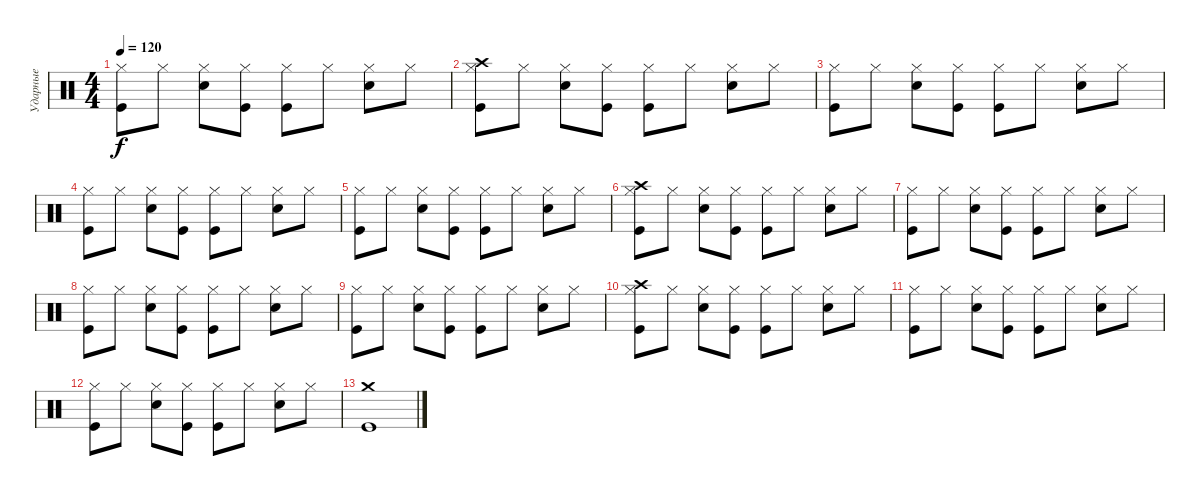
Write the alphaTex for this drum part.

\track ("Ударные" "Ударные") {instrument percussion}
\staff {score}
\articulation defaults
\ts (4 4)
\tempo 120
\clef neutral
\ks c
("Kick (hit)" "Hi-Hat (closed)").8{dy f} "Hi-Hat (closed)".8 ("Snare (hit) 2" "Hi-Hat (closed)").8 ("Kick (hit)" "Hi-Hat (closed)").8 ("Kick (hit)" "Hi-Hat (closed)").8 "Hi-Hat (closed)".8 ("Snare (hit) 2" "Hi-Hat (closed)").8 "Hi-Hat (closed)".8 |
("Kick (hit)" "Hi-Hat (closed)" "Crash high (hit)").8 "Hi-Hat (closed)".8 ("Snare (hit) 2" "Hi-Hat (closed)").8 ("Kick (hit)" "Hi-Hat (closed)").8 ("Kick (hit)" "Hi-Hat (closed)").8 "Hi-Hat (closed)".8 ("Snare (hit) 2" "Hi-Hat (closed)").8 "Hi-Hat (closed)".8 |
("Kick (hit)" "Hi-Hat (closed)").8 "Hi-Hat (closed)".8 ("Snare (hit) 2" "Hi-Hat (closed)").8 ("Kick (hit)" "Hi-Hat (closed)").8 ("Kick (hit)" "Hi-Hat (closed)").8 "Hi-Hat (closed)".8 ("Snare (hit) 2" "Hi-Hat (closed)").8 "Hi-Hat (closed)".8 |
("Kick (hit)" "Hi-Hat (closed)").8 "Hi-Hat (closed)".8 ("Snare (hit) 2" "Hi-Hat (closed)").8 ("Kick (hit)" "Hi-Hat (closed)").8 ("Kick (hit)" "Hi-Hat (closed)").8 "Hi-Hat (closed)".8 ("Snare (hit) 2" "Hi-Hat (closed)").8 "Hi-Hat (closed)".8 |
("Kick (hit)" "Hi-Hat (closed)").8 "Hi-Hat (closed)".8 ("Snare (hit) 2" "Hi-Hat (closed)").8 ("Kick (hit)" "Hi-Hat (closed)").8 ("Kick (hit)" "Hi-Hat (closed)").8 "Hi-Hat (closed)".8 ("Snare (hit) 2" "Hi-Hat (closed)").8 "Hi-Hat (closed)".8 |
("Kick (hit)" "Hi-Hat (closed)" "Crash high (hit)").8 "Hi-Hat (closed)".8 ("Snare (hit) 2" "Hi-Hat (closed)").8 ("Kick (hit)" "Hi-Hat (closed)").8 ("Kick (hit)" "Hi-Hat (closed)").8 "Hi-Hat (closed)".8 ("Snare (hit) 2" "Hi-Hat (closed)").8 "Hi-Hat (closed)".8 |
("Kick (hit)" "Hi-Hat (closed)").8 "Hi-Hat (closed)".8 ("Snare (hit) 2" "Hi-Hat (closed)").8 ("Kick (hit)" "Hi-Hat (closed)").8 ("Kick (hit)" "Hi-Hat (closed)").8 "Hi-Hat (closed)".8 ("Snare (hit) 2" "Hi-Hat (closed)").8 "Hi-Hat (closed)".8 |
("Kick (hit)" "Hi-Hat (closed)").8 "Hi-Hat (closed)".8 ("Snare (hit) 2" "Hi-Hat (closed)").8 ("Kick (hit)" "Hi-Hat (closed)").8 ("Kick (hit)" "Hi-Hat (closed)").8 "Hi-Hat (closed)".8 ("Snare (hit) 2" "Hi-Hat (closed)").8 "Hi-Hat (closed)".8 |
("Kick (hit)" "Hi-Hat (closed)").8 "Hi-Hat (closed)".8 ("Snare (hit) 2" "Hi-Hat (closed)").8 ("Kick (hit)" "Hi-Hat (closed)").8 ("Kick (hit)" "Hi-Hat (closed)").8 "Hi-Hat (closed)".8 ("Snare (hit) 2" "Hi-Hat (closed)").8 "Hi-Hat (closed)".8 |
("Kick (hit)" "Hi-Hat (closed)" "Crash high (hit)").8 "Hi-Hat (closed)".8 ("Snare (hit) 2" "Hi-Hat (closed)").8 ("Kick (hit)" "Hi-Hat (closed)").8 ("Kick (hit)" "Hi-Hat (closed)").8 "Hi-Hat (closed)".8 ("Snare (hit) 2" "Hi-Hat (closed)").8 "Hi-Hat (closed)".8 |
("Kick (hit)" "Hi-Hat (closed)").8 "Hi-Hat (closed)".8 ("Snare (hit) 2" "Hi-Hat (closed)").8 ("Kick (hit)" "Hi-Hat (closed)").8 ("Kick (hit)" "Hi-Hat (closed)").8 "Hi-Hat (closed)".8 ("Snare (hit) 2" "Hi-Hat (closed)").8 "Hi-Hat (closed)".8 |
("Kick (hit)" "Hi-Hat (closed)").8 "Hi-Hat (closed)".8 ("Snare (hit) 2" "Hi-Hat (closed)").8 ("Kick (hit)" "Hi-Hat (closed)").8 ("Kick (hit)" "Hi-Hat (closed)").8 "Hi-Hat (closed)".8 ("Snare (hit) 2" "Hi-Hat (closed)").8 "Hi-Hat (closed)".8 |
("Kick (hit)" "Crash medium (hit)").1
